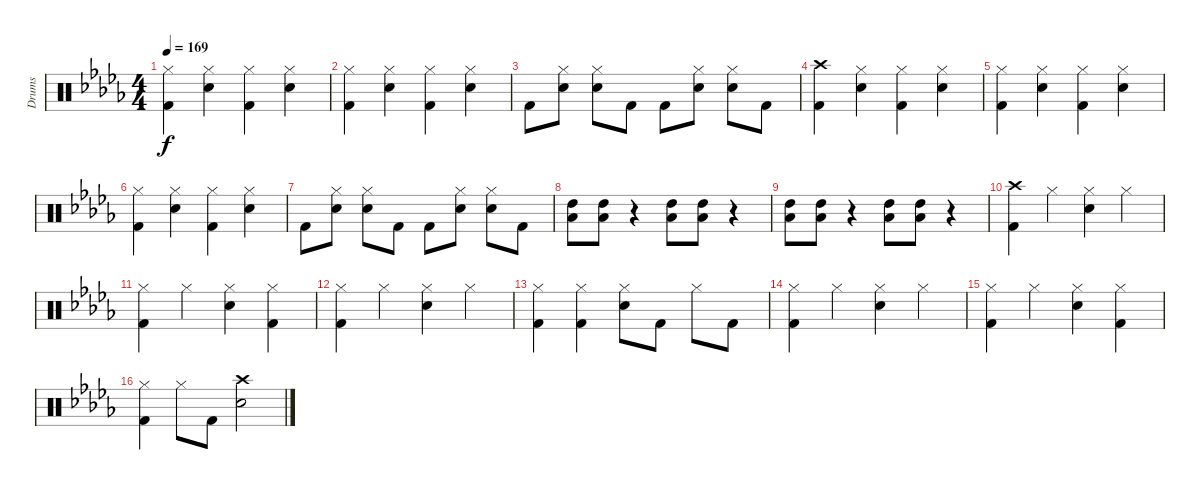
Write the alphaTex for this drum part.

\track ("Drums" "Drums") {instrument percussion}
\staff {score}
\articulation defaults
\ts (4 4)
\tempo 169
\clef neutral
\ks db
("Hi-Hat (closed)" "Kick (hit) 2").4{dy f} ("Hi-Hat (closed)" "Snare (hit) 2").4 ("Hi-Hat (closed)" "Kick (hit) 2").4 ("Hi-Hat (closed)" "Snare (hit) 2").4 |
("Hi-Hat (closed)" "Kick (hit) 2").4 ("Hi-Hat (closed)" "Snare (hit) 2").4 ("Hi-Hat (closed)" "Kick (hit) 2").4 ("Hi-Hat (closed)" "Snare (hit) 2").4 |
"Kick (hit) 2".8 ("Hi-Hat (closed)" "Snare (hit) 2").8 ("Hi-Hat (closed)" "Snare (hit) 2").8 "Kick (hit) 2".8 "Kick (hit) 2".8 ("Hi-Hat (closed)" "Snare (hit) 2").8 ("Hi-Hat (closed)" "Snare (hit) 2").8 "Kick (hit) 2".8 |
("Crash high (hit)" "Kick (hit) 2").4 ("Hi-Hat (closed)" "Snare (hit) 2").4 ("Hi-Hat (closed)" "Kick (hit) 2").4 ("Hi-Hat (closed)" "Snare (hit) 2").4 |
("Hi-Hat (closed)" "Kick (hit) 2").4 ("Hi-Hat (closed)" "Snare (hit) 2").4 ("Hi-Hat (closed)" "Kick (hit) 2").4 ("Hi-Hat (closed)" "Snare (hit) 2").4 |
("Hi-Hat (closed)" "Kick (hit) 2").4 ("Hi-Hat (closed)" "Snare (hit) 2").4 ("Hi-Hat (closed)" "Kick (hit) 2").4 ("Hi-Hat (closed)" "Snare (hit) 2").4 |
"Kick (hit) 2".8 ("Hi-Hat (closed)" "Snare (hit) 2").8 ("Hi-Hat (closed)" "Snare (hit) 2").8 "Kick (hit) 2".8 "Kick (hit) 2".8 ("Hi-Hat (closed)" "Snare (hit) 2").8 ("Hi-Hat (closed)" "Snare (hit) 2").8 "Kick (hit) 2".8 |
("Low Tom (hit)" "High Tom (hit)").8 ("Low Tom (hit)" "High Tom (hit)").8 r.4 ("Low Tom (hit)" "High Tom (hit)").8 ("Low Tom (hit)" "High Tom (hit)").8 r.4 |
("Low Tom (hit)" "High Tom (hit)").8 ("Low Tom (hit)" "High Tom (hit)").8 r.4 ("Low Tom (hit)" "High Tom (hit)").8 ("Low Tom (hit)" "High Tom (hit)").8 r.4 |
("Crash high (hit)" "Kick (hit) 2").4 "Hi-Hat (closed)".4 ("Hi-Hat (closed)" "Snare (hit) 2").4 "Hi-Hat (closed)".4 |
("Hi-Hat (closed)" "Kick (hit) 2").4 "Hi-Hat (closed)".4 ("Hi-Hat (closed)" "Snare (hit) 2").4 ("Hi-Hat (closed)" "Kick (hit) 2").4 |
("Hi-Hat (closed)" "Kick (hit) 2").4 "Hi-Hat (closed)".4 ("Hi-Hat (closed)" "Snare (hit) 2").4 "Hi-Hat (closed)".4 |
("Hi-Hat (closed)" "Kick (hit) 2").4 ("Hi-Hat (closed)" "Kick (hit) 2").4 ("Hi-Hat (closed)" "Snare (hit) 2").8 "Kick (hit) 2".8 "Hi-Hat (closed)".8 "Kick (hit) 2".8 |
("Hi-Hat (closed)" "Kick (hit) 2").4 "Hi-Hat (closed)".4 ("Hi-Hat (closed)" "Snare (hit) 2").4 "Hi-Hat (closed)".4 |
("Hi-Hat (closed)" "Kick (hit) 2").4 "Hi-Hat (closed)".4 ("Hi-Hat (closed)" "Snare (hit) 2").4 ("Hi-Hat (closed)" "Kick (hit) 2").4 |
("Hi-Hat (closed)" "Kick (hit) 2").4 "Hi-Hat (closed)".8 "Kick (hit) 2".8 ("Crash high (hit)" "Snare (hit) 2").2
